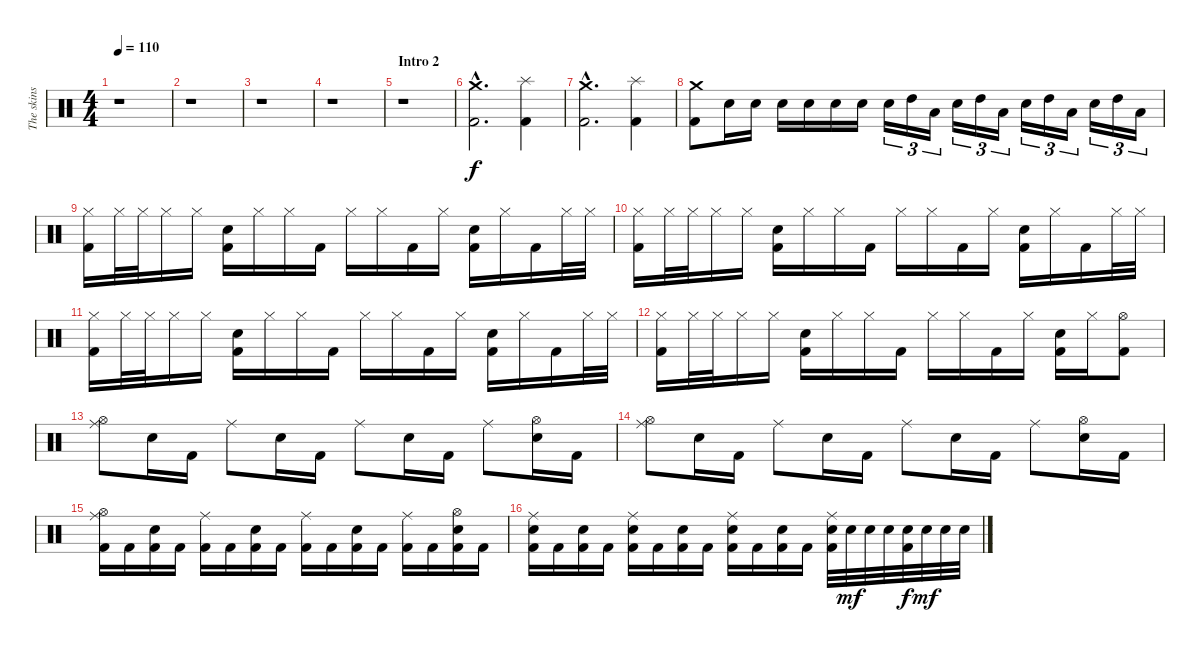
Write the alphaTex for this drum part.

\track ("The skins" "The skins") {instrument percussion}
\staff {score}
\articulation defaults
\ts (4 4)
\tempo 110
\clef neutral
\ks c
r.1{dy f} |
r.1 |
r.1 |
r.1 |
\section ("" "Intro 2")
r.1 |
("Crash medium (hit)"{hac} "Kick (hit) 2"{hac}).2{d} ("Splash (hit)" "Kick (hit) 2").4 |
("Crash medium (hit)"{hac} "Kick (hit) 2"{hac}).2{d} ("Splash (hit)" "Kick (hit) 2").4 |
("Crash medium (hit)" "Kick (hit) 2").8 "Electric Snare (hit)".16 "Electric Snare (hit)".16 "Electric Snare (hit)".16 "Electric Snare (hit)".16 "Electric Snare (hit)".16 "Electric Snare (hit)".16 "Electric Snare (hit)".16{tu (3 2)} "High Tom (hit)".16{tu (3 2)} "Low Floor Tom (hit)".16{tu (3 2)} "Electric Snare (hit)".16{tu (3 2)} "High Tom (hit)".16{tu (3 2)} "Low Floor Tom (hit)".16{tu (3 2)} "Electric Snare (hit)".16{tu (3 2)} "High Tom (hit)".16{tu (3 2)} "Low Floor Tom (hit)".16{tu (3 2)} "Electric Snare (hit)".16{tu (3 2)} "High Tom (hit)".16{tu (3 2)} "Low Floor Tom (hit)".16{tu (3 2)} |
("Hi-Hat (closed)" "Kick (hit) 2").16 "Hi-Hat (closed)".32 "Hi-Hat (closed)".32 "Hi-Hat (closed)".16 "Hi-Hat (closed)".16 ("Electric Snare (hit)" "Kick (hit) 2").16 "Hi-Hat (closed)".16 "Hi-Hat (closed)".16 "Kick (hit) 2".16 "Hi-Hat (closed)".16 "Hi-Hat (closed)".16 "Kick (hit) 2".16 "Hi-Hat (closed)".16 ("Electric Snare (hit)" "Kick (hit) 2").16 "Hi-Hat (closed)".16 "Kick (hit) 2".16 "Hi-Hat (closed)".32 "Hi-Hat (closed)".32 |
("Hi-Hat (closed)" "Kick (hit) 2").16 "Hi-Hat (closed)".32 "Hi-Hat (closed)".32 "Hi-Hat (closed)".16 "Hi-Hat (closed)".16 ("Electric Snare (hit)" "Kick (hit) 2").16 "Hi-Hat (closed)".16 "Hi-Hat (closed)".16 "Kick (hit) 2".16 "Hi-Hat (closed)".16 "Hi-Hat (closed)".16 "Kick (hit) 2".16 "Hi-Hat (closed)".16 ("Electric Snare (hit)" "Kick (hit) 2").16 "Hi-Hat (closed)".16 "Kick (hit) 2".16 "Hi-Hat (closed)".32 "Hi-Hat (closed)".32 |
("Hi-Hat (closed)" "Kick (hit) 2").16 "Hi-Hat (closed)".32 "Hi-Hat (closed)".32 "Hi-Hat (closed)".16 "Hi-Hat (closed)".16 ("Electric Snare (hit)" "Kick (hit) 2").16 "Hi-Hat (closed)".16 "Hi-Hat (closed)".16 "Kick (hit) 2".16 "Hi-Hat (closed)".16 "Hi-Hat (closed)".16 "Kick (hit) 2".16 "Hi-Hat (closed)".16 ("Electric Snare (hit)" "Kick (hit) 2").16 "Hi-Hat (closed)".16 "Kick (hit) 2".16 "Hi-Hat (closed)".32 "Hi-Hat (closed)".32 |
("Hi-Hat (closed)" "Kick (hit) 2").16 "Hi-Hat (closed)".32 "Hi-Hat (closed)".32 "Hi-Hat (closed)".16 "Hi-Hat (closed)".16 ("Electric Snare (hit)" "Kick (hit) 2").16 "Hi-Hat (closed)".16 "Hi-Hat (closed)".16 "Kick (hit) 2".16 "Hi-Hat (closed)".16 "Hi-Hat (closed)".16 "Kick (hit) 2".16 "Hi-Hat (closed)".16 ("Electric Snare (hit)" "Kick (hit) 2").16 "Hi-Hat (closed)".16 ("Hi-Hat (open)" "Kick (hit) 2").8 |
("Ride (middle)" "Hi-Hat (open)").8 "Electric Snare (hit)".16 "Kick (hit) 2".16 "Ride (middle)".8 "Electric Snare (hit)".16 "Kick (hit) 2".16 "Ride (middle)".8 "Electric Snare (hit)".16 "Kick (hit) 2".16 "Ride (middle)".8 ("Hi-Hat (open)" "Electric Snare (hit)").16 "Kick (hit) 2".16 |
("Ride (middle)" "Hi-Hat (open)").8 "Electric Snare (hit)".16 "Kick (hit) 2".16 "Ride (middle)".8 "Electric Snare (hit)".16 "Kick (hit) 2".16 "Ride (middle)".8 "Electric Snare (hit)".16 "Kick (hit) 2".16 "Ride (middle)".8 ("Hi-Hat (open)" "Electric Snare (hit)").16 "Kick (hit) 2".16 |
("Ride (middle)" "Hi-Hat (open)" "Kick (hit) 2").16 "Kick (hit) 2".16 ("Electric Snare (hit)" "Kick (hit) 2").16 "Kick (hit) 2".16 ("Ride (middle)" "Kick (hit) 2").16 "Kick (hit) 2".16 ("Electric Snare (hit)" "Kick (hit) 2").16 "Kick (hit) 2".16 ("Ride (middle)" "Kick (hit) 2").16 "Kick (hit) 2".16 ("Electric Snare (hit)" "Kick (hit) 2").16 "Kick (hit) 2".16 ("Ride (middle)" "Kick (hit) 2").16 "Kick (hit) 2".16 ("Hi-Hat (open)" "Electric Snare (hit)" "Kick (hit) 2").16 "Kick (hit) 2".16 |
("Ride (middle)" "Electric Snare (hit)" "Kick (hit) 2").16 "Kick (hit) 2".16 ("Electric Snare (hit)" "Kick (hit) 2").16 "Kick (hit) 2".16 ("Ride (middle)" "Electric Snare (hit)" "Kick (hit) 2").16 "Kick (hit) 2".16 ("Electric Snare (hit)" "Kick (hit) 2").16 "Kick (hit) 2".16 ("Ride (middle)" "Electric Snare (hit)" "Kick (hit) 2").16 "Kick (hit) 2".16 ("Electric Snare (hit)" "Kick (hit) 2").16 "Kick (hit) 2".16 ("Ride (middle)" "Electric Snare (hit)" "Kick (hit) 2").32 "Electric Snare (hit)".32{dy mf} "Electric Snare (hit)".32 "Electric Snare (hit)".32 ("Electric Snare (hit)" "Kick (hit) 2").32{dy f} "Electric Snare (hit)".32{dy mf} "Electric Snare (hit)".32 "Electric Snare (hit)".32
